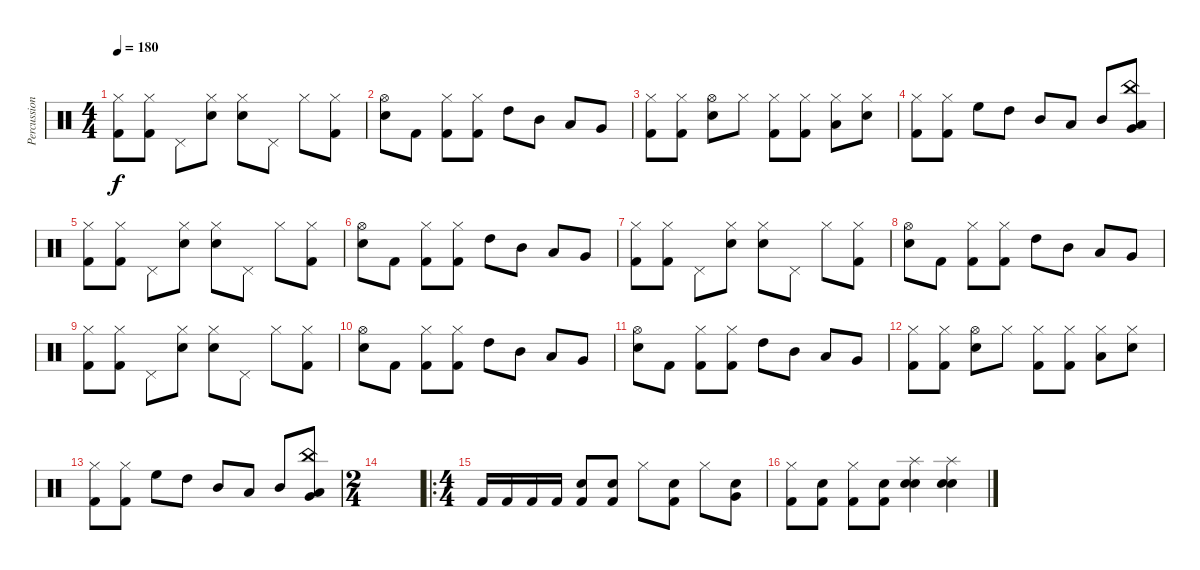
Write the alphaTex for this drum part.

\track ("Percussion" "Percussion") {instrument percussion}
\staff {score}
\articulation defaults
\ts (4 4)
\tempo 180
\clef neutral
\ks c
("Hi-Hat (closed)" "Kick (hit) 2").8{dy f} ("Hi-Hat (closed)" "Kick (hit) 2").8 "Pedal Hi-Hat (hit)".8 ("Hi-Hat (closed)" "Snare (hit) 2").8 ("Hi-Hat (closed)" "Snare (hit) 2").8 "Pedal Hi-Hat (hit)".8 "Hi-Hat (closed)".8 ("Hi-Hat (closed)" "Kick (hit) 2").8 |
("Hi-Hat (open)" "Snare (hit) 2").8 "Kick (hit) 2".8 ("Hi-Hat (closed)" "Kick (hit) 2").8 ("Hi-Hat (closed)" "Kick (hit) 2").8 "High Tom (hit)".8 "Mid Tom (hit)".8 "Low Tom (hit)".8 "Very Low Tom (hit)".8 |
("Hi-Hat (closed)" "Kick (hit) 2").8 ("Hi-Hat (closed)" "Kick (hit) 2").8 ("Hi-Hat (open)" "Electric Snare (hit)").8 "Hi-Hat (closed)".8 ("Hi-Hat (closed)" "Kick (hit) 2").8 ("Hi-Hat (closed)" "Kick (hit) 2").8 ("Hi-Hat (closed)" "Low Tom (hit)").8 ("Hi-Hat (closed)" "Snare (hit) 2").8 |
("Hi-Hat (closed)" "Kick (hit) 2").8 ("Hi-Hat (closed)" "Kick (hit) 2").8 "High Floor Tom (hit)".8 "High Tom (hit)".8 "Mid Tom (hit)".8 "Low Tom (hit)".8 "Mid Tom (hit)".8 ("China (hit)" "Low Floor Tom (hit)" "Very Low Tom (hit)").8 |
("Hi-Hat (closed)" "Kick (hit) 2").8 ("Hi-Hat (closed)" "Kick (hit) 2").8 "Pedal Hi-Hat (hit)".8 ("Hi-Hat (closed)" "Snare (hit) 2").8 ("Hi-Hat (closed)" "Snare (hit) 2").8 "Pedal Hi-Hat (hit)".8 "Hi-Hat (closed)".8 ("Hi-Hat (closed)" "Kick (hit) 2").8 |
("Hi-Hat (open)" "Snare (hit) 2").8 "Kick (hit) 2".8 ("Hi-Hat (closed)" "Kick (hit) 2").8 ("Hi-Hat (closed)" "Kick (hit) 2").8 "High Tom (hit)".8 "Mid Tom (hit)".8 "Low Tom (hit)".8 "Very Low Tom (hit)".8 |
("Hi-Hat (closed)" "Kick (hit) 2").8 ("Hi-Hat (closed)" "Kick (hit) 2").8 "Pedal Hi-Hat (hit)".8 ("Hi-Hat (closed)" "Snare (hit) 2").8 ("Hi-Hat (closed)" "Snare (hit) 2").8 "Pedal Hi-Hat (hit)".8 "Hi-Hat (closed)".8 ("Hi-Hat (closed)" "Kick (hit) 2").8 |
("Hi-Hat (open)" "Snare (hit) 2").8 "Kick (hit) 2".8 ("Hi-Hat (closed)" "Kick (hit) 2").8 ("Hi-Hat (closed)" "Kick (hit) 2").8 "High Tom (hit)".8 "Mid Tom (hit)".8 "Low Tom (hit)".8 "Very Low Tom (hit)".8 |
("Hi-Hat (closed)" "Kick (hit) 2").8 ("Hi-Hat (closed)" "Kick (hit) 2").8 "Pedal Hi-Hat (hit)".8 ("Hi-Hat (closed)" "Snare (hit) 2").8 ("Hi-Hat (closed)" "Snare (hit) 2").8 "Pedal Hi-Hat (hit)".8 "Hi-Hat (closed)".8 ("Hi-Hat (closed)" "Kick (hit) 2").8 |
("Hi-Hat (open)" "Snare (hit) 2").8 "Kick (hit) 2".8 ("Hi-Hat (closed)" "Kick (hit) 2").8 ("Hi-Hat (closed)" "Kick (hit) 2").8 "High Tom (hit)".8 "Mid Tom (hit)".8 "Low Tom (hit)".8 "Very Low Tom (hit)".8 |
("Hi-Hat (open)" "Snare (hit) 2").8 "Kick (hit) 2".8 ("Hi-Hat (closed)" "Kick (hit) 2").8 ("Hi-Hat (closed)" "Kick (hit) 2").8 "High Tom (hit)".8 "Mid Tom (hit)".8 "Low Tom (hit)".8 "Very Low Tom (hit)".8 |
("Hi-Hat (closed)" "Kick (hit) 2").8 ("Hi-Hat (closed)" "Kick (hit) 2").8 ("Hi-Hat (open)" "Electric Snare (hit)").8 "Hi-Hat (closed)".8 ("Hi-Hat (closed)" "Kick (hit) 2").8 ("Hi-Hat (closed)" "Kick (hit) 2").8 ("Hi-Hat (closed)" "Low Tom (hit)").8 ("Hi-Hat (closed)" "Snare (hit) 2").8 |
("Hi-Hat (closed)" "Kick (hit) 2").8 ("Hi-Hat (closed)" "Kick (hit) 2").8 "High Floor Tom (hit)".8 "High Tom (hit)".8 "Mid Tom (hit)".8 "Low Tom (hit)".8 "Mid Tom (hit)".8 ("China (hit)" "Low Floor Tom (hit)" "Very Low Tom (hit)").8 |
\ts (2 4)
|
\ro
\ts (4 4)
"Kick (hit) 2".16 "Kick (hit) 2".16 "Kick (hit) 2".16 "Kick (hit) 2".16 ("Electric Snare (hit)" "Kick (hit) 2").8 ("Electric Snare (hit)" "Kick (hit) 2").8 "Hi-Hat (closed)".8 ("Electric Snare (hit)" "Kick (hit) 2").8 "Hi-Hat (closed)".8 ("Electric Snare (hit)" "Very Low Tom (hit)").8 |
("Hi-Hat (closed)" "Kick (hit) 2").8 ("Electric Snare (hit)" "Kick (hit) 2").8 ("Hi-Hat (closed)" "Kick (hit) 2").8 ("Electric Snare (hit)" "Kick (hit) 2").8 ("Splash (hit)" "Snare (hit) 2" "Electric Snare (hit)").4 ("Splash (hit)" "Snare (hit) 2" "Electric Snare (hit)").4
